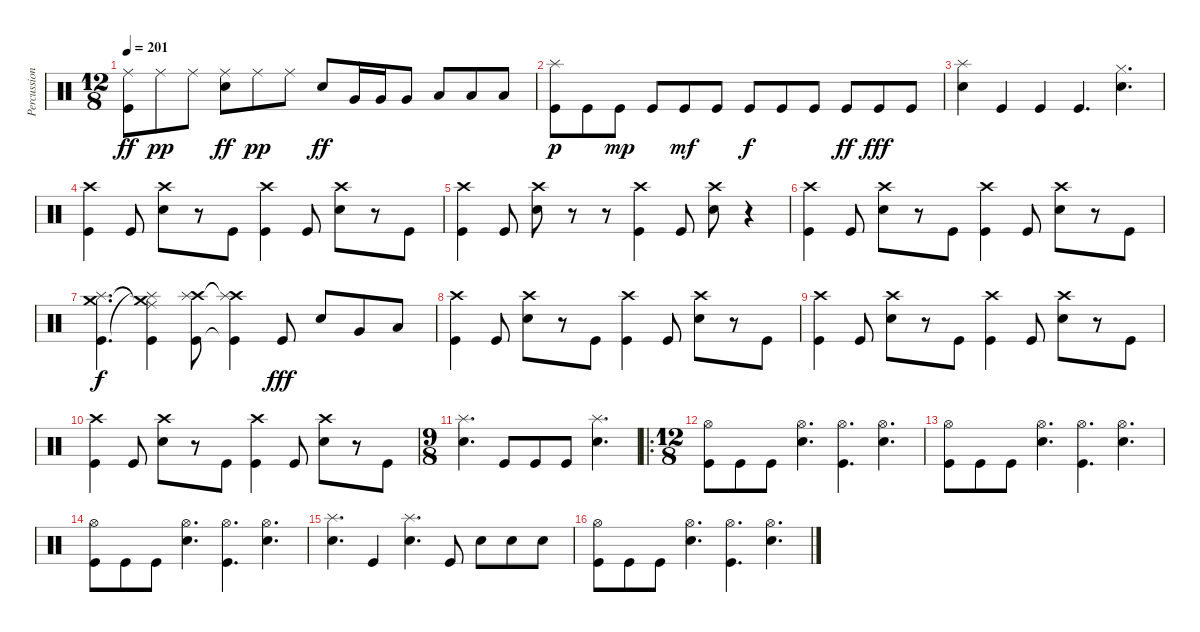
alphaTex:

\track ("Percussion" "Percussion") {instrument percussion}
\staff {score}
\articulation defaults
\ts (12 8)
\tempo 201
\clef neutral
\ks c
("Ride (middle)" "Kick (hit)").8{dy ff} "Ride (middle)".8{dy pp} "Ride (middle)".8 ("Ride (middle)" "Snare (hit) 2").8{dy ff} "Ride (middle)".8{dy pp} "Ride (middle)".8 "Snare (hit) 2".8{dy ff} "Very Low Tom (hit)".16 "Very Low Tom (hit)".16 "Very Low Tom (hit)".8 "Low Floor Tom (hit)".8 "Low Floor Tom (hit)".8 "Low Floor Tom (hit)".8 |
("Splash (hit)" "Kick (hit)").8{dy p} "Kick (hit)".8 "Kick (hit)".8{dy mp} "Kick (hit)".8 "Kick (hit)".8{dy mf} "Kick (hit)".8 "Kick (hit)".8{dy f} "Kick (hit)".8 "Kick (hit)".8 "Kick (hit)".8{dy ff} "Kick (hit)".8{dy fff} "Kick (hit)".8 |
("Splash (hit)" "Snare (hit) 2").4 "Kick (hit)".4 "Kick (hit)".4 "Kick (hit)".4{d} ("Hi-Hat (closed)" "Snare (hit) 2").4{d} |
("Crash high (hit)" "Kick (hit)").4 "Kick (hit)".8 ("Crash high (hit)" "Snare (hit) 2").8 r.8 "Kick (hit)".8 ("Crash high (hit)" "Kick (hit)").4 "Kick (hit)".8 ("Crash high (hit)" "Snare (hit) 2").8 r.8 "Kick (hit)".8 |
("Crash high (hit)" "Kick (hit)").4 "Kick (hit)".8 ("Crash high (hit)" "Snare (hit) 2").8 r.8 r.8 ("Crash high (hit)" "Kick (hit)").4 "Kick (hit)".8 ("Crash high (hit)" "Snare (hit) 2").8 r.4 |
("Crash high (hit)" "Kick (hit)").4 "Kick (hit)".8 ("Crash high (hit)" "Snare (hit) 2").8 r.8 "Kick (hit)".8 ("Crash high (hit)" "Kick (hit)").4 "Kick (hit)".8 ("Crash high (hit)" "Snare (hit) 2").8 r.8 "Kick (hit)".8 |
("Crash medium (hit)" "Splash (hit)" "Kick (hit)").4{d dy f} ("Crash medium (hit)"{t} "Ride (middle)"{t} "Splash (hit)"{t} "Kick (hit)").4 ("Crash high (hit)" "Splash (hit)" "Kick (hit)").8 ("Crash high (hit)"{t} "Splash (hit)"{t} "Kick (hit)"{t}).4 "Kick (hit)".8{dy fff} "Snare (hit) 2".8 "Very Low Tom (hit)".8 "Low Floor Tom (hit)".8 |
("Crash high (hit)" "Kick (hit)").4 "Kick (hit)".8 ("Crash high (hit)" "Snare (hit) 2").8 r.8 "Kick (hit)".8 ("Crash high (hit)" "Kick (hit)").4 "Kick (hit)".8 ("Crash high (hit)" "Snare (hit) 2").8 r.8 "Kick (hit)".8 |
("Crash high (hit)" "Kick (hit)").4 "Kick (hit)".8 ("Crash high (hit)" "Snare (hit) 2").8 r.8 "Kick (hit)".8 ("Crash high (hit)" "Kick (hit)").4 "Kick (hit)".8 ("Crash high (hit)" "Snare (hit) 2").8 r.8 "Kick (hit)".8 |
("Crash high (hit)" "Kick (hit)").4 "Kick (hit)".8 ("Crash high (hit)" "Snare (hit) 2").8 r.8 "Kick (hit)".8 ("Crash high (hit)" "Kick (hit)").4 "Kick (hit)".8 ("Crash high (hit)" "Snare (hit) 2").8 r.8 "Kick (hit)".8 |
\ts (9 8)
("Splash (hit)" "Snare (hit) 2").4{d} "Kick (hit)".8 "Kick (hit)".8 "Kick (hit)".8 ("Splash (hit)" "Snare (hit) 2").4{d} |
\ro
\ts (12 8)
("Hi-Hat (open)" "Kick (hit)").8 "Kick (hit)".8 "Kick (hit)".8 ("Hi-Hat (open)" "Snare (hit) 2").4{d} ("Hi-Hat (open)" "Kick (hit)").4{d} ("Hi-Hat (open)" "Snare (hit) 2").4{d} |
("Hi-Hat (open)" "Kick (hit)").8 "Kick (hit)".8 "Kick (hit)".8 ("Hi-Hat (open)" "Snare (hit) 2").4{d} ("Hi-Hat (open)" "Kick (hit)").4{d} ("Hi-Hat (open)" "Snare (hit) 2").4{d} |
("Hi-Hat (open)" "Kick (hit)").8 "Kick (hit)".8 "Kick (hit)".8 ("Hi-Hat (open)" "Snare (hit) 2").4{d} ("Hi-Hat (open)" "Kick (hit)").4{d} ("Hi-Hat (open)" "Snare (hit) 2").4{d} |
("Splash (hit)" "Snare (hit) 2").4{d} "Kick (hit)".4 ("Splash (hit)" "Snare (hit) 2").4{d} "Kick (hit)".8 "Snare (hit) 2".8 "Snare (hit) 2".8 "Snare (hit) 2".8 |
("Hi-Hat (open)" "Kick (hit)").8 "Kick (hit)".8 "Kick (hit)".8 ("Hi-Hat (open)" "Snare (hit) 2").4{d} ("Hi-Hat (open)" "Kick (hit)").4{d} ("Hi-Hat (open)" "Snare (hit) 2").4{d}
